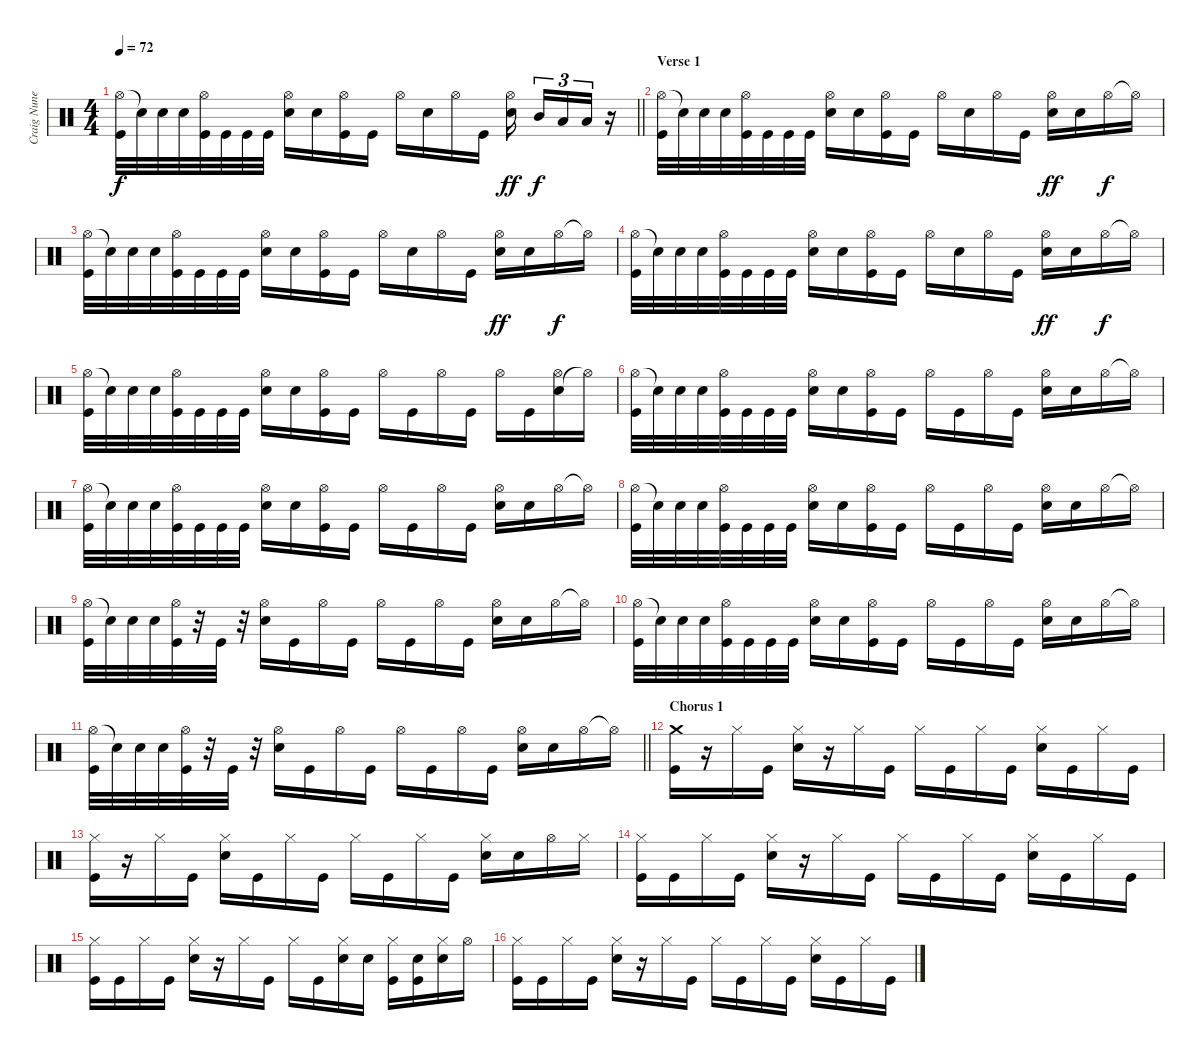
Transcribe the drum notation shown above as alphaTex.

\track ("Craig Nunenmacher" "Craig Nune") {instrument percussion}
\staff {score}
\articulation defaults
\ts (4 4)
\tempo 72
\clef neutral
\barLineRight lightlight
\ks c
("Hi-Hat (open)" "Kick (hit)").32{dy f} "Snare (hit)"{t}.32 "Snare (hit) 2".32 "Snare (hit) 2".32 ("Hi-Hat (open)" "Kick (hit)").32 "Kick (hit)".32 "Kick (hit)".32 "Kick (hit)".32 ("Snare (hit) 2" "Hi-Hat (open)").16 "Snare (hit) 2".16 ("Hi-Hat (open)" "Kick (hit)").16 "Kick (hit)".16 "Hi-Hat (open)".16 "Snare (hit) 2".16 "Hi-Hat (open)".16 "Kick (hit)".16 ("Snare (hit) 2" "Hi-Hat (open)").16{dy ff beam splitsecondary} "Mid Tom (hit)".16{tu (3 2) dy f} "Low Tom (hit)".16{tu (3 2)} "Low Floor Tom (hit)".16{tu (3 2)} r.16 |
\section ("" "Verse 1")
("Hi-Hat (open)" "Kick (hit)").32 "Snare (hit)"{t}.32 "Snare (hit) 2".32 "Snare (hit) 2".32 ("Hi-Hat (open)" "Kick (hit)").32 "Kick (hit)".32 "Kick (hit)".32 "Kick (hit)".32 ("Snare (hit) 2" "Hi-Hat (open)").16 "Snare (hit) 2".16 ("Hi-Hat (open)" "Kick (hit)").16 "Kick (hit)".16 "Hi-Hat (open)".16 "Snare (hit) 2".16 "Hi-Hat (open)".16 "Kick (hit)".16 ("Snare (hit) 2" "Hi-Hat (open)").16{dy ff} "Snare (hit) 2".16 "Hi-Hat (open)".16{dy f} "Hi-Hat (open)"{t}.16 |
("Hi-Hat (open)" "Kick (hit)").32 "Snare (hit)"{t}.32 "Snare (hit) 2".32 "Snare (hit) 2".32 ("Hi-Hat (open)" "Kick (hit)").32 "Kick (hit)".32 "Kick (hit)".32 "Kick (hit)".32 ("Snare (hit) 2" "Hi-Hat (open)").16 "Snare (hit) 2".16 ("Hi-Hat (open)" "Kick (hit)").16 "Kick (hit)".16 "Hi-Hat (open)".16 "Snare (hit) 2".16 "Hi-Hat (open)".16 "Kick (hit)".16 ("Snare (hit) 2" "Hi-Hat (open)").16{dy ff} "Snare (hit) 2".16 "Hi-Hat (open)".16{dy f} "Hi-Hat (open)"{t}.16 |
("Hi-Hat (open)" "Kick (hit)").32 "Snare (hit)"{t}.32 "Snare (hit) 2".32 "Snare (hit) 2".32 ("Hi-Hat (open)" "Kick (hit)").32 "Kick (hit)".32 "Kick (hit)".32 "Kick (hit)".32 ("Snare (hit) 2" "Hi-Hat (open)").16 "Snare (hit) 2".16 ("Hi-Hat (open)" "Kick (hit)").16 "Kick (hit)".16 "Hi-Hat (open)".16 "Snare (hit) 2".16 "Hi-Hat (open)".16 "Kick (hit)".16 ("Snare (hit) 2" "Hi-Hat (open)").16{dy ff} "Snare (hit) 2".16 "Hi-Hat (open)".16{dy f} "Hi-Hat (open)"{t}.16 |
("Hi-Hat (open)" "Kick (hit)").32 "Snare (hit)"{t}.32 "Snare (hit) 2".32 "Snare (hit) 2".32 ("Hi-Hat (open)" "Kick (hit)").32 "Kick (hit)".32 "Kick (hit)".32 "Kick (hit)".32 ("Snare (hit) 2" "Hi-Hat (open)").16 "Snare (hit) 2".16 ("Hi-Hat (open)" "Kick (hit)").16 "Kick (hit)".16 "Hi-Hat (open)".16 "Kick (hit)".16 "Hi-Hat (open)".16 "Kick (hit)".16 "Hi-Hat (open)".16 "Kick (hit)".16 ("Snare (hit) 2" "Hi-Hat (open)").16 "Hi-Hat (open)"{t}.16 |
("Hi-Hat (open)" "Kick (hit)").32 "Snare (hit)"{t}.32 "Snare (hit) 2".32 "Snare (hit) 2".32 ("Hi-Hat (open)" "Kick (hit)").32 "Kick (hit)".32 "Kick (hit)".32 "Kick (hit)".32 ("Snare (hit) 2" "Hi-Hat (open)").16 "Snare (hit) 2".16 ("Hi-Hat (open)" "Kick (hit)").16 "Kick (hit)".16 "Hi-Hat (open)".16 "Kick (hit)".16 "Hi-Hat (open)".16 "Kick (hit)".16 ("Snare (hit) 2" "Hi-Hat (open)").16 "Snare (hit) 2".16 "Hi-Hat (open)".16 "Hi-Hat (open)"{t}.16 |
("Hi-Hat (open)" "Kick (hit)").32 "Snare (hit)"{t}.32 "Snare (hit) 2".32 "Snare (hit) 2".32 ("Hi-Hat (open)" "Kick (hit)").32 "Kick (hit)".32 "Kick (hit)".32 "Kick (hit)".32 ("Snare (hit) 2" "Hi-Hat (open)").16 "Snare (hit) 2".16 ("Hi-Hat (open)" "Kick (hit)").16 "Kick (hit)".16 "Hi-Hat (open)".16 "Kick (hit)".16 "Hi-Hat (open)".16 "Kick (hit)".16 ("Snare (hit) 2" "Hi-Hat (open)").16 "Snare (hit) 2".16 "Hi-Hat (open)".16 "Hi-Hat (open)"{t}.16 |
("Hi-Hat (open)" "Kick (hit)").32 "Snare (hit)"{t}.32 "Snare (hit) 2".32 "Snare (hit) 2".32 ("Hi-Hat (open)" "Kick (hit)").32 "Kick (hit)".32 "Kick (hit)".32 "Kick (hit)".32 ("Snare (hit) 2" "Hi-Hat (open)").16 "Snare (hit) 2".16 ("Hi-Hat (open)" "Kick (hit)").16 "Kick (hit)".16 "Hi-Hat (open)".16 "Kick (hit)".16 "Hi-Hat (open)".16 "Kick (hit)".16 ("Snare (hit) 2" "Hi-Hat (open)").16 "Snare (hit) 2".16 "Hi-Hat (open)".16 "Hi-Hat (open)"{t}.16 |
("Hi-Hat (open)" "Kick (hit)").32 "Snare (hit)"{t}.32 "Snare (hit) 2".32 "Snare (hit) 2".32 ("Hi-Hat (open)" "Kick (hit)").32 r.32 "Kick (hit)".32 r.32 ("Snare (hit) 2" "Hi-Hat (open)").16 "Kick (hit)".16 "Hi-Hat (open)".16 "Kick (hit)".16 "Hi-Hat (open)".16 "Kick (hit)".16 "Hi-Hat (open)".16 "Kick (hit)".16 ("Snare (hit) 2" "Hi-Hat (open)").16 "Snare (hit) 2".16 "Hi-Hat (open)".16 "Hi-Hat (open)"{t}.16 |
("Hi-Hat (open)" "Kick (hit)").32 "Snare (hit)"{t}.32 "Snare (hit) 2".32 "Snare (hit) 2".32 ("Hi-Hat (open)" "Kick (hit)").32 "Kick (hit)".32 "Kick (hit)".32 "Kick (hit)".32 ("Snare (hit) 2" "Hi-Hat (open)").16 "Snare (hit) 2".16 ("Hi-Hat (open)" "Kick (hit)").16 "Kick (hit)".16 "Hi-Hat (open)".16 "Kick (hit)".16 "Hi-Hat (open)".16 "Kick (hit)".16 ("Snare (hit) 2" "Hi-Hat (open)").16 "Snare (hit) 2".16 "Hi-Hat (open)".16 "Hi-Hat (open)"{t}.16 |
\barLineRight lightlight
("Hi-Hat (open)" "Kick (hit)").32 "Snare (hit)"{t}.32 "Snare (hit) 2".32 "Snare (hit) 2".32 ("Hi-Hat (open)" "Kick (hit)").32 r.32 "Kick (hit)".32 r.32 ("Snare (hit) 2" "Hi-Hat (open)").16 "Kick (hit)".16 "Hi-Hat (open)".16 "Kick (hit)".16 "Hi-Hat (open)".16 "Kick (hit)".16 "Hi-Hat (open)".16 "Kick (hit)".16 ("Snare (hit) 2" "Hi-Hat (open)").16 "Snare (hit) 2".16 "Hi-Hat (open)".16 "Hi-Hat (open)"{t}.16 |
\section ("" "Chorus 1")
("Crash medium (hit)" "Kick (hit)").16 r.16 "Hi-Hat (closed)".16 "Kick (hit)".16 ("Snare (hit) 2" "Hi-Hat (closed)").16 r.16 "Hi-Hat (closed)".16 "Kick (hit)".16 "Hi-Hat (closed)".16 "Kick (hit)".16 "Hi-Hat (closed)".16 "Kick (hit)".16 ("Snare (hit) 2" "Hi-Hat (closed)").16 "Kick (hit)".16 "Hi-Hat (closed)".16 "Kick (hit)".16 |
("Hi-Hat (closed)" "Kick (hit)").16 r.16 "Hi-Hat (closed)".16 "Kick (hit)".16 ("Snare (hit) 2" "Hi-Hat (closed)").16 "Kick (hit)".16 "Hi-Hat (closed)".16 "Kick (hit)".16 "Hi-Hat (closed)".16 "Kick (hit)".16 "Hi-Hat (closed)".16 "Kick (hit)".16 ("Snare (hit) 2" "Hi-Hat (closed)").16 "Snare (hit) 2".16 "Hi-Hat (open)".16 "Hi-Hat (closed)".16 |
("Hi-Hat (closed)" "Kick (hit)").16 "Kick (hit)".16 "Hi-Hat (closed)".16 "Kick (hit)".16 ("Snare (hit) 2" "Hi-Hat (closed)").16 r.16 "Hi-Hat (closed)".16 "Kick (hit)".16 "Hi-Hat (closed)".16 "Kick (hit)".16 "Hi-Hat (closed)".16 "Kick (hit)".16 ("Snare (hit) 2" "Hi-Hat (closed)").16 "Kick (hit)".16 "Hi-Hat (closed)".16 "Kick (hit)".16 |
("Hi-Hat (closed)" "Kick (hit)").16 "Kick (hit)".16 "Hi-Hat (closed)".16 "Kick (hit)".16 ("Snare (hit) 2" "Hi-Hat (closed)").16 r.16 "Hi-Hat (closed)".16 "Kick (hit)".16 "Hi-Hat (closed)".16 "Kick (hit)".16 ("Snare (hit) 2" "Hi-Hat (closed)").16 "Snare (hit) 2".16 ("Hi-Hat (closed)" "Kick (hit)").16 ("Snare (hit) 2" "Kick (hit)").16 ("Snare (hit) 2" "Hi-Hat (closed)").16 "Hi-Hat (open)".16 |
("Hi-Hat (closed)" "Kick (hit)").16 "Kick (hit)".16 "Hi-Hat (closed)".16 "Kick (hit)".16 ("Snare (hit) 2" "Hi-Hat (closed)").16 r.16 "Hi-Hat (closed)".16 "Kick (hit)".16 "Hi-Hat (closed)".16 "Kick (hit)".16 "Hi-Hat (closed)".16 "Kick (hit)".16 ("Snare (hit) 2" "Hi-Hat (closed)").16 "Kick (hit)".16 "Hi-Hat (closed)".16 "Kick (hit)".16
